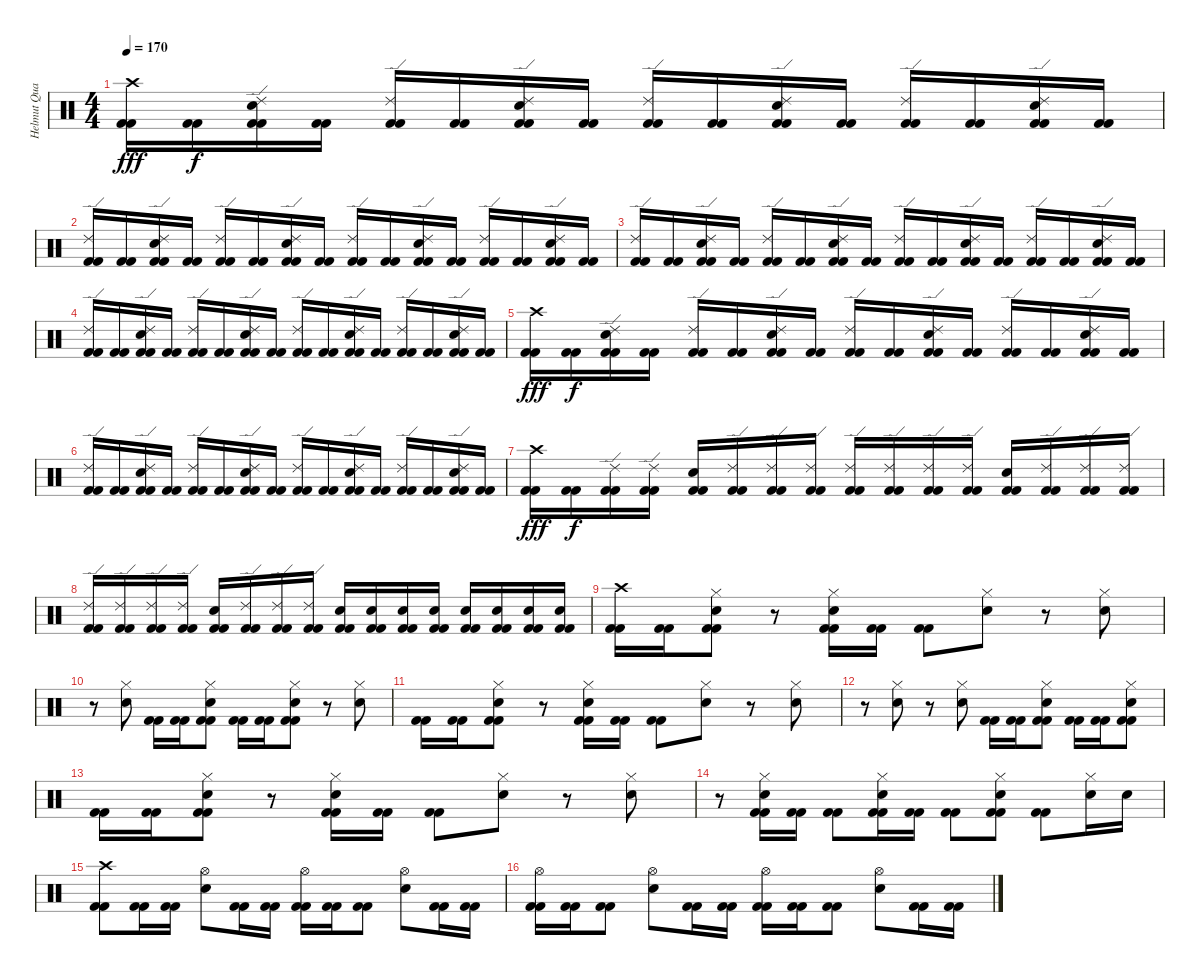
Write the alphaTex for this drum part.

\track ("Helmut Quacken" "Helmut Qua") {instrument percussion}
\staff {score}
\articulation defaults
\ts (4 4)
\tempo 170
\clef neutral
\ks c
("Crash high (hit)" "Kick (hit) 2" "Kick (hit) 2").16{dy fff} ("Kick (hit) 2" "Kick (hit) 2").16{dy f} ("Ride (edge) 2" "Electric Snare (hit)" "Kick (hit) 2" "Kick (hit) 2").16 ("Kick (hit) 2" "Kick (hit) 2").16 ("Ride (edge) 2" "Kick (hit) 2" "Kick (hit) 2").16 ("Kick (hit) 2" "Kick (hit) 2").16 ("Ride (edge) 2" "Electric Snare (hit)" "Kick (hit) 2" "Kick (hit) 2").16 ("Kick (hit) 2" "Kick (hit) 2").16 ("Ride (edge) 2" "Kick (hit) 2" "Kick (hit) 2").16 ("Kick (hit) 2" "Kick (hit) 2").16 ("Ride (edge) 2" "Electric Snare (hit)" "Kick (hit) 2" "Kick (hit) 2").16 ("Kick (hit) 2" "Kick (hit) 2").16 ("Ride (edge) 2" "Kick (hit) 2" "Kick (hit) 2").16 ("Kick (hit) 2" "Kick (hit) 2").16 ("Ride (edge) 2" "Electric Snare (hit)" "Kick (hit) 2" "Kick (hit) 2").16 ("Kick (hit) 2" "Kick (hit) 2").16 |
("Ride (edge) 2" "Kick (hit) 2" "Kick (hit) 2").16 ("Kick (hit) 2" "Kick (hit) 2").16 ("Ride (edge) 2" "Electric Snare (hit)" "Kick (hit) 2" "Kick (hit) 2").16 ("Kick (hit) 2" "Kick (hit) 2").16 ("Ride (edge) 2" "Kick (hit) 2" "Kick (hit) 2").16 ("Kick (hit) 2" "Kick (hit) 2").16 ("Ride (edge) 2" "Electric Snare (hit)" "Kick (hit) 2" "Kick (hit) 2").16 ("Kick (hit) 2" "Kick (hit) 2").16 ("Ride (edge) 2" "Kick (hit) 2" "Kick (hit) 2").16 ("Kick (hit) 2" "Kick (hit) 2").16 ("Ride (edge) 2" "Electric Snare (hit)" "Kick (hit) 2" "Kick (hit) 2").16 ("Kick (hit) 2" "Kick (hit) 2").16 ("Ride (edge) 2" "Kick (hit) 2" "Kick (hit) 2").16 ("Kick (hit) 2" "Kick (hit) 2").16 ("Ride (edge) 2" "Electric Snare (hit)" "Kick (hit) 2" "Kick (hit) 2").16 ("Kick (hit) 2" "Kick (hit) 2").16 |
("Ride (edge) 2" "Kick (hit) 2" "Kick (hit) 2").16 ("Kick (hit) 2" "Kick (hit) 2").16 ("Ride (edge) 2" "Electric Snare (hit)" "Kick (hit) 2" "Kick (hit) 2").16 ("Kick (hit) 2" "Kick (hit) 2").16 ("Ride (edge) 2" "Kick (hit) 2" "Kick (hit) 2").16 ("Kick (hit) 2" "Kick (hit) 2").16 ("Ride (edge) 2" "Electric Snare (hit)" "Kick (hit) 2" "Kick (hit) 2").16 ("Kick (hit) 2" "Kick (hit) 2").16 ("Ride (edge) 2" "Kick (hit) 2" "Kick (hit) 2").16 ("Kick (hit) 2" "Kick (hit) 2").16 ("Ride (edge) 2" "Electric Snare (hit)" "Kick (hit) 2" "Kick (hit) 2").16 ("Kick (hit) 2" "Kick (hit) 2").16 ("Ride (edge) 2" "Kick (hit) 2" "Kick (hit) 2").16 ("Kick (hit) 2" "Kick (hit) 2").16 ("Ride (edge) 2" "Electric Snare (hit)" "Kick (hit) 2" "Kick (hit) 2").16 ("Kick (hit) 2" "Kick (hit) 2").16 |
("Ride (edge) 2" "Kick (hit) 2" "Kick (hit) 2").16 ("Kick (hit) 2" "Kick (hit) 2").16 ("Ride (edge) 2" "Electric Snare (hit)" "Kick (hit) 2" "Kick (hit) 2").16 ("Kick (hit) 2" "Kick (hit) 2").16 ("Ride (edge) 2" "Kick (hit) 2" "Kick (hit) 2").16 ("Kick (hit) 2" "Kick (hit) 2").16 ("Ride (edge) 2" "Electric Snare (hit)" "Kick (hit) 2" "Kick (hit) 2").16 ("Kick (hit) 2" "Kick (hit) 2").16 ("Ride (edge) 2" "Kick (hit) 2" "Kick (hit) 2").16 ("Kick (hit) 2" "Kick (hit) 2").16 ("Ride (edge) 2" "Electric Snare (hit)" "Kick (hit) 2" "Kick (hit) 2").16 ("Kick (hit) 2" "Kick (hit) 2").16 ("Ride (edge) 2" "Kick (hit) 2" "Kick (hit) 2").16 ("Kick (hit) 2" "Kick (hit) 2").16 ("Ride (edge) 2" "Electric Snare (hit)" "Kick (hit) 2" "Kick (hit) 2").16 ("Kick (hit) 2" "Kick (hit) 2").16 |
("Crash high (hit)" "Kick (hit) 2" "Kick (hit) 2").16{dy fff} ("Kick (hit) 2" "Kick (hit) 2").16{dy f} ("Ride (edge) 2" "Electric Snare (hit)" "Kick (hit) 2" "Kick (hit) 2").16 ("Kick (hit) 2" "Kick (hit) 2").16 ("Ride (edge) 2" "Kick (hit) 2" "Kick (hit) 2").16 ("Kick (hit) 2" "Kick (hit) 2").16 ("Ride (edge) 2" "Electric Snare (hit)" "Kick (hit) 2" "Kick (hit) 2").16 ("Kick (hit) 2" "Kick (hit) 2").16 ("Ride (edge) 2" "Kick (hit) 2" "Kick (hit) 2").16 ("Kick (hit) 2" "Kick (hit) 2").16 ("Ride (edge) 2" "Electric Snare (hit)" "Kick (hit) 2" "Kick (hit) 2").16 ("Kick (hit) 2" "Kick (hit) 2").16 ("Ride (edge) 2" "Kick (hit) 2" "Kick (hit) 2").16 ("Kick (hit) 2" "Kick (hit) 2").16 ("Ride (edge) 2" "Electric Snare (hit)" "Kick (hit) 2" "Kick (hit) 2").16 ("Kick (hit) 2" "Kick (hit) 2").16 |
("Ride (edge) 2" "Kick (hit) 2" "Kick (hit) 2").16 ("Kick (hit) 2" "Kick (hit) 2").16 ("Ride (edge) 2" "Electric Snare (hit)" "Kick (hit) 2" "Kick (hit) 2").16 ("Kick (hit) 2" "Kick (hit) 2").16 ("Ride (edge) 2" "Kick (hit) 2" "Kick (hit) 2").16 ("Kick (hit) 2" "Kick (hit) 2").16 ("Ride (edge) 2" "Electric Snare (hit)" "Kick (hit) 2" "Kick (hit) 2").16 ("Kick (hit) 2" "Kick (hit) 2").16 ("Ride (edge) 2" "Kick (hit) 2" "Kick (hit) 2").16 ("Kick (hit) 2" "Kick (hit) 2").16 ("Ride (edge) 2" "Electric Snare (hit)" "Kick (hit) 2" "Kick (hit) 2").16 ("Kick (hit) 2" "Kick (hit) 2").16 ("Ride (edge) 2" "Kick (hit) 2" "Kick (hit) 2").16 ("Kick (hit) 2" "Kick (hit) 2").16 ("Ride (edge) 2" "Electric Snare (hit)" "Kick (hit) 2" "Kick (hit) 2").16 ("Kick (hit) 2" "Kick (hit) 2").16 |
("Crash high (hit)" "Kick (hit) 2" "Kick (hit) 2").16{dy fff} ("Kick (hit) 2" "Kick (hit) 2").16{dy f} ("Ride (edge) 2" "Kick (hit) 2" "Kick (hit) 2").16 ("Ride (edge) 2" "Kick (hit) 2" "Kick (hit) 2").16 ("Electric Snare (hit)" "Kick (hit) 2" "Kick (hit) 2").16 ("Ride (edge) 2" "Kick (hit) 2" "Kick (hit) 2").16 ("Ride (edge) 2" "Kick (hit) 2" "Kick (hit) 2").16 ("Ride (edge) 2" "Kick (hit) 2" "Kick (hit) 2").16 ("Ride (edge) 2" "Kick (hit) 2" "Kick (hit) 2").16 ("Ride (edge) 2" "Kick (hit) 2" "Kick (hit) 2").16 ("Ride (edge) 2" "Kick (hit) 2" "Kick (hit) 2").16 ("Ride (edge) 2" "Kick (hit) 2" "Kick (hit) 2").16 ("Electric Snare (hit)" "Kick (hit) 2" "Kick (hit) 2").16 ("Ride (edge) 2" "Kick (hit) 2" "Kick (hit) 2").16 ("Ride (edge) 2" "Kick (hit) 2" "Kick (hit) 2").16 ("Ride (edge) 2" "Kick (hit) 2" "Kick (hit) 2").16 |
("Ride (edge) 2" "Kick (hit) 2" "Kick (hit) 2").16 ("Ride (edge) 2" "Kick (hit) 2" "Kick (hit) 2").16 ("Ride (edge) 2" "Kick (hit) 2" "Kick (hit) 2").16 ("Ride (edge) 2" "Kick (hit) 2" "Kick (hit) 2").16 ("Electric Snare (hit)" "Kick (hit) 2" "Kick (hit) 2").16 ("Ride (edge) 2" "Kick (hit) 2" "Kick (hit) 2").16 ("Ride (edge) 2" "Kick (hit) 2" "Kick (hit) 2").16 ("Ride (edge) 2" "Kick (hit) 2" "Kick (hit) 2").16 ("Electric Snare (hit)" "Kick (hit) 2" "Kick (hit) 2").16 ("Electric Snare (hit)" "Kick (hit) 2" "Kick (hit) 2").16 ("Electric Snare (hit)" "Kick (hit) 2" "Kick (hit) 2").16 ("Electric Snare (hit)" "Kick (hit) 2" "Kick (hit) 2").16 ("Electric Snare (hit)" "Kick (hit) 2" "Kick (hit) 2").16 ("Electric Snare (hit)" "Kick (hit) 2" "Kick (hit) 2").16 ("Electric Snare (hit)" "Kick (hit) 2" "Kick (hit) 2").16 ("Electric Snare (hit)" "Kick (hit) 2" "Kick (hit) 2").16 |
("Crash high (hit)" "Kick (hit) 2" "Kick (hit) 2").16 ("Kick (hit) 2" "Kick (hit) 2").16 ("Hi-Hat (closed)" "Electric Snare (hit)" "Kick (hit) 2" "Kick (hit) 2").8 r.8 ("Hi-Hat (closed)" "Electric Snare (hit)" "Kick (hit) 2" "Kick (hit) 2").16 ("Kick (hit) 2" "Kick (hit) 2").16 ("Kick (hit) 2" "Kick (hit) 2").8 ("Hi-Hat (closed)" "Electric Snare (hit)").8 r.8 ("Hi-Hat (closed)" "Electric Snare (hit)").8 |
r.8 ("Hi-Hat (closed)" "Electric Snare (hit)").8 ("Kick (hit) 2" "Kick (hit) 2").16 ("Kick (hit) 2" "Kick (hit) 2").16 ("Hi-Hat (closed)" "Electric Snare (hit)" "Kick (hit) 2" "Kick (hit) 2").8 ("Kick (hit) 2" "Kick (hit) 2").16 ("Kick (hit) 2" "Kick (hit) 2").16 ("Hi-Hat (closed)" "Electric Snare (hit)" "Kick (hit) 2" "Kick (hit) 2").8 r.8 ("Hi-Hat (closed)" "Electric Snare (hit)").8 |
("Kick (hit) 2" "Kick (hit) 2").16 ("Kick (hit) 2" "Kick (hit) 2").16 ("Hi-Hat (closed)" "Electric Snare (hit)" "Kick (hit) 2" "Kick (hit) 2").8 r.8 ("Hi-Hat (closed)" "Electric Snare (hit)" "Kick (hit) 2" "Kick (hit) 2").16 ("Kick (hit) 2" "Kick (hit) 2").16 ("Kick (hit) 2" "Kick (hit) 2").8 ("Hi-Hat (closed)" "Electric Snare (hit)").8 r.8 ("Hi-Hat (closed)" "Electric Snare (hit)").8 |
r.8 ("Hi-Hat (closed)" "Electric Snare (hit)").8 r.8 ("Hi-Hat (closed)" "Electric Snare (hit)").8 ("Kick (hit) 2" "Kick (hit) 2").16 ("Kick (hit) 2" "Kick (hit) 2").16 ("Hi-Hat (closed)" "Electric Snare (hit)" "Kick (hit) 2" "Kick (hit) 2").8 ("Kick (hit) 2" "Kick (hit) 2").16 ("Kick (hit) 2" "Kick (hit) 2").16 ("Hi-Hat (closed)" "Electric Snare (hit)" "Kick (hit) 2" "Kick (hit) 2").8 |
("Kick (hit) 2" "Kick (hit) 2").16 ("Kick (hit) 2" "Kick (hit) 2").16 ("Hi-Hat (closed)" "Electric Snare (hit)" "Kick (hit) 2" "Kick (hit) 2").8 r.8 ("Hi-Hat (closed)" "Electric Snare (hit)" "Kick (hit) 2" "Kick (hit) 2").16 ("Kick (hit) 2" "Kick (hit) 2").16 ("Kick (hit) 2" "Kick (hit) 2").8 ("Hi-Hat (closed)" "Electric Snare (hit)").8 r.8 ("Hi-Hat (closed)" "Electric Snare (hit)").8 |
r.8 ("Hi-Hat (closed)" "Electric Snare (hit)" "Kick (hit) 2" "Kick (hit) 2").16 ("Kick (hit) 2" "Kick (hit) 2").16 ("Kick (hit) 2" "Kick (hit) 2").8 ("Hi-Hat (closed)" "Electric Snare (hit)" "Kick (hit) 2" "Kick (hit) 2").16 ("Kick (hit) 2" "Kick (hit) 2").16 ("Kick (hit) 2" "Kick (hit) 2").8 ("Hi-Hat (closed)" "Electric Snare (hit)" "Kick (hit) 2" "Kick (hit) 2").8 ("Kick (hit) 2" "Kick (hit) 2").8 ("Hi-Hat (closed)" "Electric Snare (hit)").16 "Electric Snare (hit)".16 |
("Crash high (hit)" "Kick (hit) 2" "Kick (hit) 2").8 ("Kick (hit) 2" "Kick (hit) 2").16 ("Kick (hit) 2" "Kick (hit) 2").16 ("Hi-Hat (open)" "Electric Snare (hit)").8 ("Kick (hit) 2" "Kick (hit) 2").16 ("Kick (hit) 2" "Kick (hit) 2").16 ("Hi-Hat (open)" "Kick (hit) 2" "Kick (hit) 2").16 ("Kick (hit) 2" "Kick (hit) 2").16 ("Kick (hit) 2" "Kick (hit) 2").8 ("Hi-Hat (open)" "Electric Snare (hit)").8 ("Kick (hit) 2" "Kick (hit) 2").16 ("Kick (hit) 2" "Kick (hit) 2").16 |
("Hi-Hat (open)" "Kick (hit) 2" "Kick (hit) 2").16 ("Kick (hit) 2" "Kick (hit) 2").16 ("Kick (hit) 2" "Kick (hit) 2").8 ("Hi-Hat (open)" "Electric Snare (hit)").8 ("Kick (hit) 2" "Kick (hit) 2").16 ("Kick (hit) 2" "Kick (hit) 2").16 ("Hi-Hat (open)" "Kick (hit) 2" "Kick (hit) 2").16 ("Kick (hit) 2" "Kick (hit) 2").16 ("Kick (hit) 2" "Kick (hit) 2").8 ("Hi-Hat (open)" "Electric Snare (hit)").8 ("Kick (hit) 2" "Kick (hit) 2").16 ("Kick (hit) 2" "Kick (hit) 2").16
